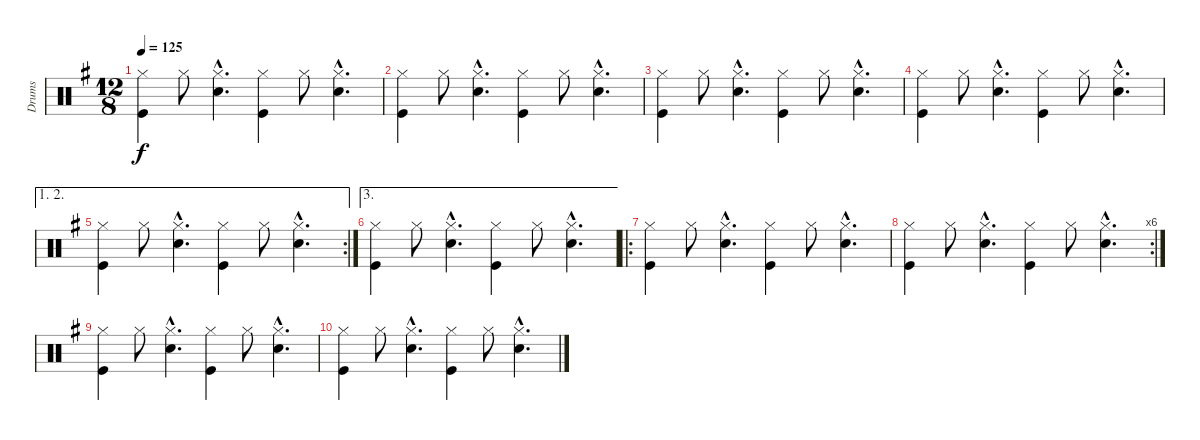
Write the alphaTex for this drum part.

\track ("Drums" "Drums") {instrument percussion}
\staff {score}
\articulation defaults
\ts (12 8)
\tempo 125
\clef neutral
\ks g
("Hi-Hat (closed)" "Kick (hit)").4{dy f} "Hi-Hat (closed)".8 ("Hi-Hat (closed)"{hac} "Snare (hit) 2"{hac}).4{d} ("Hi-Hat (closed)" "Kick (hit)").4 "Hi-Hat (closed)".8 ("Hi-Hat (closed)"{hac} "Snare (hit) 2"{hac}).4{d} |
("Hi-Hat (closed)" "Kick (hit)").4 "Hi-Hat (closed)".8 ("Hi-Hat (closed)"{hac} "Snare (hit) 2"{hac}).4{d} ("Hi-Hat (closed)" "Kick (hit)").4 "Hi-Hat (closed)".8 ("Hi-Hat (closed)"{hac} "Snare (hit) 2"{hac}).4{d} |
("Hi-Hat (closed)" "Kick (hit)").4 "Hi-Hat (closed)".8 ("Hi-Hat (closed)"{hac} "Snare (hit) 2"{hac}).4{d} ("Hi-Hat (closed)" "Kick (hit)").4 "Hi-Hat (closed)".8 ("Hi-Hat (closed)"{hac} "Snare (hit) 2"{hac}).4{d} |
("Hi-Hat (closed)" "Kick (hit)").4 "Hi-Hat (closed)".8 ("Hi-Hat (closed)"{hac} "Snare (hit) 2"{hac}).4{d} ("Hi-Hat (closed)" "Kick (hit)").4 "Hi-Hat (closed)".8 ("Hi-Hat (closed)"{hac} "Snare (hit) 2"{hac}).4{d} |
\ae (1 2)
\rc 2
("Hi-Hat (closed)" "Kick (hit)").4 "Hi-Hat (closed)".8 ("Hi-Hat (closed)"{hac} "Snare (hit) 2"{hac}).4{d} ("Hi-Hat (closed)" "Kick (hit)").4 "Hi-Hat (closed)".8 ("Hi-Hat (closed)"{hac} "Snare (hit) 2"{hac}).4{d} |
\ae 3
("Hi-Hat (closed)" "Kick (hit)").4 "Hi-Hat (closed)".8 ("Hi-Hat (closed)"{hac} "Snare (hit) 2"{hac}).4{d} ("Hi-Hat (closed)" "Kick (hit)").4 "Hi-Hat (closed)".8 ("Hi-Hat (closed)"{hac} "Snare (hit) 2"{hac}).4{d} |
\ro
("Hi-Hat (closed)" "Kick (hit)").4 "Hi-Hat (closed)".8 ("Hi-Hat (closed)"{hac} "Snare (hit) 2"{hac}).4{d} ("Hi-Hat (closed)" "Kick (hit)").4 "Hi-Hat (closed)".8 ("Hi-Hat (closed)"{hac} "Snare (hit) 2"{hac}).4{d} |
\rc 6
("Hi-Hat (closed)" "Kick (hit)").4 "Hi-Hat (closed)".8 ("Hi-Hat (closed)"{hac} "Snare (hit) 2"{hac}).4{d} ("Hi-Hat (closed)" "Kick (hit)").4 "Hi-Hat (closed)".8 ("Hi-Hat (closed)"{hac} "Snare (hit) 2"{hac}).4{d} |
("Hi-Hat (closed)" "Kick (hit)").4 "Hi-Hat (closed)".8 ("Hi-Hat (closed)"{hac} "Snare (hit) 2"{hac}).4{d} ("Hi-Hat (closed)" "Kick (hit)").4 "Hi-Hat (closed)".8 ("Hi-Hat (closed)"{hac} "Snare (hit) 2"{hac}).4{d} |
("Hi-Hat (closed)" "Kick (hit)").4 "Hi-Hat (closed)".8 ("Hi-Hat (closed)"{hac} "Snare (hit) 2"{hac}).4{d} ("Hi-Hat (closed)" "Kick (hit)").4 "Hi-Hat (closed)".8 ("Hi-Hat (closed)"{hac} "Snare (hit) 2"{hac}).4{d}
